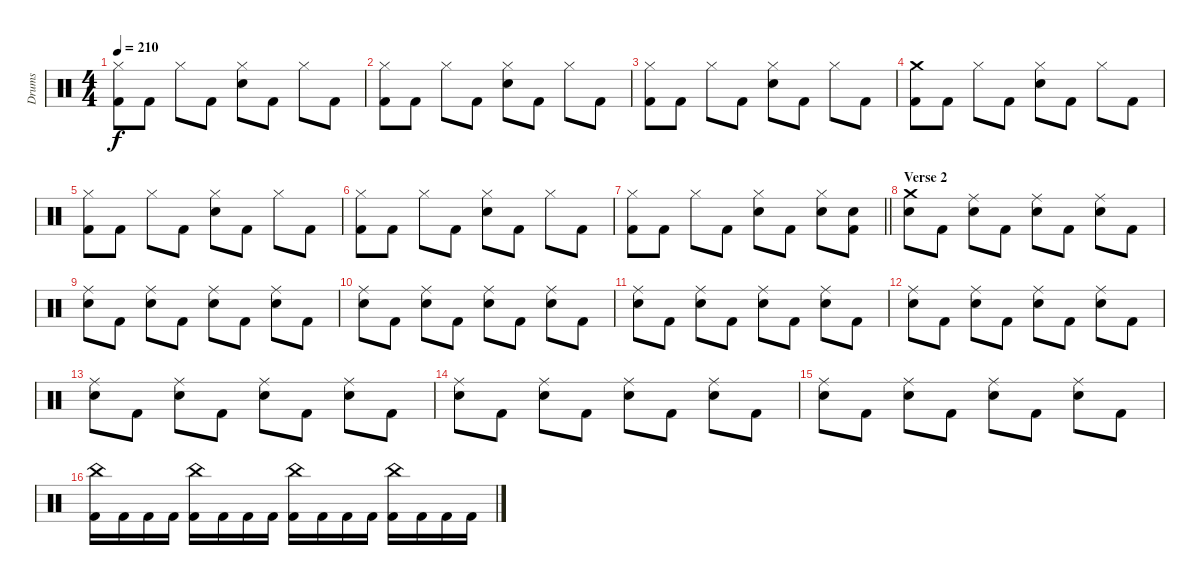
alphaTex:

\track ("Drums" "Drums") {instrument percussion}
\staff {score}
\articulation defaults
\ts (4 4)
\tempo 210
\clef neutral
\ks c
("Kick (hit) 2" "Hi-Hat (closed)").8{dy f} "Kick (hit) 2".8 "Hi-Hat (closed)".8 "Kick (hit) 2".8 ("Snare (hit) 2" "Hi-Hat (closed)").8 "Kick (hit) 2".8 "Hi-Hat (closed)".8 "Kick (hit) 2".8 |
("Kick (hit) 2" "Hi-Hat (closed)").8 "Kick (hit) 2".8 "Hi-Hat (closed)".8 "Kick (hit) 2".8 ("Snare (hit) 2" "Hi-Hat (closed)").8 "Kick (hit) 2".8 "Hi-Hat (closed)".8 "Kick (hit) 2".8 |
("Kick (hit) 2" "Hi-Hat (closed)").8 "Kick (hit) 2".8 "Hi-Hat (closed)".8 "Kick (hit) 2".8 ("Snare (hit) 2" "Hi-Hat (closed)").8 "Kick (hit) 2".8 "Hi-Hat (closed)".8 "Kick (hit) 2".8 |
("Kick (hit) 2" "Crash medium (hit)").8 "Kick (hit) 2".8 "Hi-Hat (closed)".8 "Kick (hit) 2".8 ("Snare (hit) 2" "Hi-Hat (closed)").8 "Kick (hit) 2".8 "Hi-Hat (closed)".8 "Kick (hit) 2".8 |
("Kick (hit) 2" "Hi-Hat (closed)").8 "Kick (hit) 2".8 "Hi-Hat (closed)".8 "Kick (hit) 2".8 ("Snare (hit) 2" "Hi-Hat (closed)").8 "Kick (hit) 2".8 "Hi-Hat (closed)".8 "Kick (hit) 2".8 |
("Kick (hit) 2" "Hi-Hat (closed)").8 "Kick (hit) 2".8 "Hi-Hat (closed)".8 "Kick (hit) 2".8 ("Snare (hit) 2" "Hi-Hat (closed)").8 "Kick (hit) 2".8 "Hi-Hat (closed)".8 "Kick (hit) 2".8 |
\barLineRight lightlight
("Kick (hit) 2" "Hi-Hat (closed)").8 "Kick (hit) 2".8 "Hi-Hat (closed)".8 "Kick (hit) 2".8 ("Snare (hit) 2" "Hi-Hat (closed)").8 "Kick (hit) 2".8 ("Snare (hit) 2" "Hi-Hat (closed)").8 ("Kick (hit) 2" "Snare (hit) 2").8 |
\section ("" "Verse 2")
("Snare (hit) 2" "Crash medium (hit)").8 "Kick (hit) 2".8 ("Snare (hit) 2" "Ride (middle)").8 "Kick (hit) 2".8 ("Snare (hit) 2" "Ride (middle)").8 "Kick (hit) 2".8 ("Snare (hit) 2" "Ride (middle)").8 "Kick (hit) 2".8 |
("Snare (hit) 2" "Ride (middle)").8 "Kick (hit) 2".8 ("Snare (hit) 2" "Ride (middle)").8 "Kick (hit) 2".8 ("Snare (hit) 2" "Ride (middle)").8 "Kick (hit) 2".8 ("Snare (hit) 2" "Ride (middle)").8 "Kick (hit) 2".8 |
("Snare (hit) 2" "Ride (middle)").8 "Kick (hit) 2".8 ("Snare (hit) 2" "Ride (middle)").8 "Kick (hit) 2".8 ("Snare (hit) 2" "Ride (middle)").8 "Kick (hit) 2".8 ("Snare (hit) 2" "Ride (middle)").8 "Kick (hit) 2".8 |
("Snare (hit) 2" "Ride (middle)").8 "Kick (hit) 2".8 ("Snare (hit) 2" "Ride (middle)").8 "Kick (hit) 2".8 ("Snare (hit) 2" "Ride (middle)").8 "Kick (hit) 2".8 ("Snare (hit) 2" "Ride (middle)").8 "Kick (hit) 2".8 |
("Snare (hit) 2" "Ride (middle)").8 "Kick (hit) 2".8 ("Snare (hit) 2" "Ride (middle)").8 "Kick (hit) 2".8 ("Snare (hit) 2" "Ride (middle)").8 "Kick (hit) 2".8 ("Snare (hit) 2" "Ride (middle)").8 "Kick (hit) 2".8 |
("Snare (hit) 2" "Ride (middle)").8 "Kick (hit) 2".8 ("Snare (hit) 2" "Ride (middle)").8 "Kick (hit) 2".8 ("Snare (hit) 2" "Ride (middle)").8 "Kick (hit) 2".8 ("Snare (hit) 2" "Ride (middle)").8 "Kick (hit) 2".8 |
("Snare (hit) 2" "Ride (middle)").8 "Kick (hit) 2".8 ("Snare (hit) 2" "Ride (middle)").8 "Kick (hit) 2".8 ("Snare (hit) 2" "Ride (middle)").8 "Kick (hit) 2".8 ("Snare (hit) 2" "Ride (middle)").8 "Kick (hit) 2".8 |
("Snare (hit) 2" "Ride (middle)").8 "Kick (hit) 2".8 ("Snare (hit) 2" "Ride (middle)").8 "Kick (hit) 2".8 ("Snare (hit) 2" "Ride (middle)").8 "Kick (hit) 2".8 ("Snare (hit) 2" "Ride (middle)").8 "Kick (hit) 2".8 |
("Kick (hit) 2" "China (hit)").16 "Kick (hit) 2".16 "Kick (hit) 2".16 "Kick (hit) 2".16 ("Kick (hit) 2" "China (hit)").16 "Kick (hit) 2".16 "Kick (hit) 2".16 "Kick (hit) 2".16 ("Kick (hit) 2" "China (hit)").16 "Kick (hit) 2".16 "Kick (hit) 2".16 "Kick (hit) 2".16 ("Kick (hit) 2" "China (hit)").16 "Kick (hit) 2".16 "Kick (hit) 2".16 "Kick (hit) 2".16
